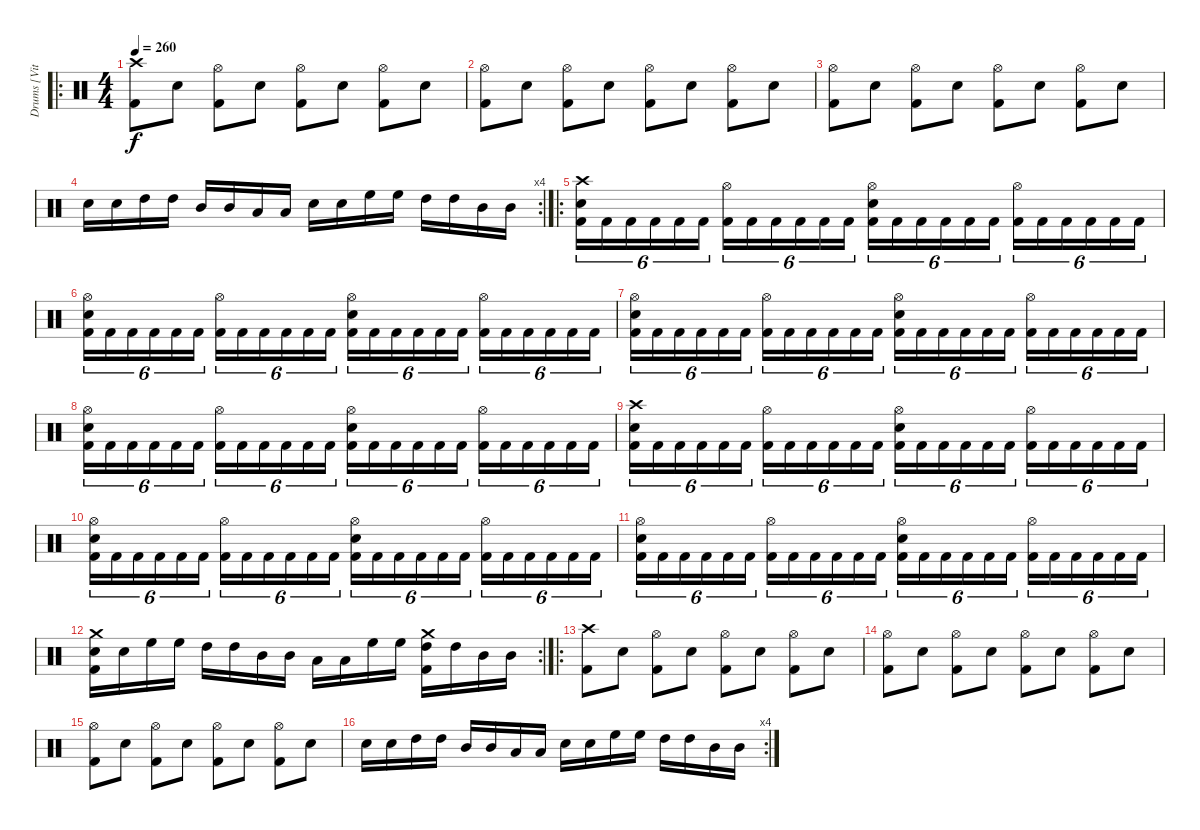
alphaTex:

\track ("Drums [Vitek]" "Drums [Vit") {instrument percussion}
\staff {score}
\articulation defaults
\ro
\ts (4 4)
\tempo 260
\clef neutral
\ks c
("Crash high (hit)" "Kick (hit) 2").8{dy f} "Electric Snare (hit)".8 ("Hi-Hat (open)" "Kick (hit) 2").8 "Electric Snare (hit)".8 ("Hi-Hat (open)" "Kick (hit) 2").8 "Electric Snare (hit)".8 ("Hi-Hat (open)" "Kick (hit) 2").8 "Electric Snare (hit)".8 |
("Hi-Hat (open)" "Kick (hit) 2").8 "Electric Snare (hit)".8 ("Hi-Hat (open)" "Kick (hit) 2").8 "Electric Snare (hit)".8 ("Hi-Hat (open)" "Kick (hit) 2").8 "Electric Snare (hit)".8 ("Hi-Hat (open)" "Kick (hit) 2").8 "Electric Snare (hit)".8 |
("Hi-Hat (open)" "Kick (hit) 2").8 "Electric Snare (hit)".8 ("Hi-Hat (open)" "Kick (hit) 2").8 "Electric Snare (hit)".8 ("Hi-Hat (open)" "Kick (hit) 2").8 "Electric Snare (hit)".8 ("Hi-Hat (open)" "Kick (hit) 2").8 "Electric Snare (hit)".8 |
\rc 4 "Electric Snare (hit)".16 "Electric Snare (hit)".16 "High Tom (hit)".16 "High Tom (hit)".16 "Mid Tom (hit)".16 "Mid Tom (hit)".16 "Low Tom (hit)".16 "Low Tom (hit)".16 "Electric Snare (hit)".16 "Electric Snare (hit)".16 "High Floor Tom (hit)".16 "High Floor Tom (hit)".16 "High Tom (hit)".16 "High Tom (hit)".16 "Mid Tom (hit)".16 "Mid Tom (hit)".16
|
\ro
("Crash high (hit)" "Electric Snare (hit)" "Kick (hit) 2").16{tu (6 4)} "Kick (hit) 2".16{tu (6 4)} "Kick (hit) 2".16{tu (6 4)} "Kick (hit) 2".16{tu (6 4)} "Kick (hit) 2".16{tu (6 4)} "Kick (hit) 2".16{tu (6 4)} ("Hi-Hat (open)" "Kick (hit) 2").16{tu (6 4)} "Kick (hit) 2".16{tu (6 4)} "Kick (hit) 2".16{tu (6 4)} "Kick (hit) 2".16{tu (6 4)} "Kick (hit) 2".16{tu (6 4)} "Kick (hit) 2".16{tu (6 4)} ("Hi-Hat (open)" "Electric Snare (hit)" "Kick (hit) 2").16{tu (6 4)} "Kick (hit) 2".16{tu (6 4)} "Kick (hit) 2".16{tu (6 4)} "Kick (hit) 2".16{tu (6 4)} "Kick (hit) 2".16{tu (6 4)} "Kick (hit) 2".16{tu (6 4)} ("Hi-Hat (open)" "Kick (hit) 2").16{tu (6 4)} "Kick (hit) 2".16{tu (6 4)} "Kick (hit) 2".16{tu (6 4)} "Kick (hit) 2".16{tu (6 4)} "Kick (hit) 2".16{tu (6 4)} "Kick (hit) 2".16{tu (6 4)} |
("Hi-Hat (open)" "Electric Snare (hit)" "Kick (hit) 2").16{tu (6 4)} "Kick (hit) 2".16{tu (6 4)} "Kick (hit) 2".16{tu (6 4)} "Kick (hit) 2".16{tu (6 4)} "Kick (hit) 2".16{tu (6 4)} "Kick (hit) 2".16{tu (6 4)} ("Hi-Hat (open)" "Kick (hit) 2").16{tu (6 4)} "Kick (hit) 2".16{tu (6 4)} "Kick (hit) 2".16{tu (6 4)} "Kick (hit) 2".16{tu (6 4)} "Kick (hit) 2".16{tu (6 4)} "Kick (hit) 2".16{tu (6 4)} ("Hi-Hat (open)" "Electric Snare (hit)" "Kick (hit) 2").16{tu (6 4)} "Kick (hit) 2".16{tu (6 4)} "Kick (hit) 2".16{tu (6 4)} "Kick (hit) 2".16{tu (6 4)} "Kick (hit) 2".16{tu (6 4)} "Kick (hit) 2".16{tu (6 4)} ("Hi-Hat (open)" "Kick (hit) 2").16{tu (6 4)} "Kick (hit) 2".16{tu (6 4)} "Kick (hit) 2".16{tu (6 4)} "Kick (hit) 2".16{tu (6 4)} "Kick (hit) 2".16{tu (6 4)} "Kick (hit) 2".16{tu (6 4)} |
("Hi-Hat (open)" "Electric Snare (hit)" "Kick (hit) 2").16{tu (6 4)} "Kick (hit) 2".16{tu (6 4)} "Kick (hit) 2".16{tu (6 4)} "Kick (hit) 2".16{tu (6 4)} "Kick (hit) 2".16{tu (6 4)} "Kick (hit) 2".16{tu (6 4)} ("Hi-Hat (open)" "Kick (hit) 2").16{tu (6 4)} "Kick (hit) 2".16{tu (6 4)} "Kick (hit) 2".16{tu (6 4)} "Kick (hit) 2".16{tu (6 4)} "Kick (hit) 2".16{tu (6 4)} "Kick (hit) 2".16{tu (6 4)} ("Hi-Hat (open)" "Electric Snare (hit)" "Kick (hit) 2").16{tu (6 4)} "Kick (hit) 2".16{tu (6 4)} "Kick (hit) 2".16{tu (6 4)} "Kick (hit) 2".16{tu (6 4)} "Kick (hit) 2".16{tu (6 4)} "Kick (hit) 2".16{tu (6 4)} ("Hi-Hat (open)" "Kick (hit) 2").16{tu (6 4)} "Kick (hit) 2".16{tu (6 4)} "Kick (hit) 2".16{tu (6 4)} "Kick (hit) 2".16{tu (6 4)} "Kick (hit) 2".16{tu (6 4)} "Kick (hit) 2".16{tu (6 4)} |
("Hi-Hat (open)" "Electric Snare (hit)" "Kick (hit) 2").16{tu (6 4)} "Kick (hit) 2".16{tu (6 4)} "Kick (hit) 2".16{tu (6 4)} "Kick (hit) 2".16{tu (6 4)} "Kick (hit) 2".16{tu (6 4)} "Kick (hit) 2".16{tu (6 4)} ("Hi-Hat (open)" "Kick (hit) 2").16{tu (6 4)} "Kick (hit) 2".16{tu (6 4)} "Kick (hit) 2".16{tu (6 4)} "Kick (hit) 2".16{tu (6 4)} "Kick (hit) 2".16{tu (6 4)} "Kick (hit) 2".16{tu (6 4)} ("Hi-Hat (open)" "Electric Snare (hit)" "Kick (hit) 2").16{tu (6 4)} "Kick (hit) 2".16{tu (6 4)} "Kick (hit) 2".16{tu (6 4)} "Kick (hit) 2".16{tu (6 4)} "Kick (hit) 2".16{tu (6 4)} "Kick (hit) 2".16{tu (6 4)} ("Hi-Hat (open)" "Kick (hit) 2").16{tu (6 4)} "Kick (hit) 2".16{tu (6 4)} "Kick (hit) 2".16{tu (6 4)} "Kick (hit) 2".16{tu (6 4)} "Kick (hit) 2".16{tu (6 4)} "Kick (hit) 2".16{tu (6 4)} |
("Crash high (hit)" "Electric Snare (hit)" "Kick (hit) 2").16{tu (6 4)} "Kick (hit) 2".16{tu (6 4)} "Kick (hit) 2".16{tu (6 4)} "Kick (hit) 2".16{tu (6 4)} "Kick (hit) 2".16{tu (6 4)} "Kick (hit) 2".16{tu (6 4)} ("Hi-Hat (open)" "Kick (hit) 2").16{tu (6 4)} "Kick (hit) 2".16{tu (6 4)} "Kick (hit) 2".16{tu (6 4)} "Kick (hit) 2".16{tu (6 4)} "Kick (hit) 2".16{tu (6 4)} "Kick (hit) 2".16{tu (6 4)} ("Hi-Hat (open)" "Electric Snare (hit)" "Kick (hit) 2").16{tu (6 4)} "Kick (hit) 2".16{tu (6 4)} "Kick (hit) 2".16{tu (6 4)} "Kick (hit) 2".16{tu (6 4)} "Kick (hit) 2".16{tu (6 4)} "Kick (hit) 2".16{tu (6 4)} ("Hi-Hat (open)" "Kick (hit) 2").16{tu (6 4)} "Kick (hit) 2".16{tu (6 4)} "Kick (hit) 2".16{tu (6 4)} "Kick (hit) 2".16{tu (6 4)} "Kick (hit) 2".16{tu (6 4)} "Kick (hit) 2".16{tu (6 4)} |
("Hi-Hat (open)" "Electric Snare (hit)" "Kick (hit) 2").16{tu (6 4)} "Kick (hit) 2".16{tu (6 4)} "Kick (hit) 2".16{tu (6 4)} "Kick (hit) 2".16{tu (6 4)} "Kick (hit) 2".16{tu (6 4)} "Kick (hit) 2".16{tu (6 4)} ("Hi-Hat (open)" "Kick (hit) 2").16{tu (6 4)} "Kick (hit) 2".16{tu (6 4)} "Kick (hit) 2".16{tu (6 4)} "Kick (hit) 2".16{tu (6 4)} "Kick (hit) 2".16{tu (6 4)} "Kick (hit) 2".16{tu (6 4)} ("Hi-Hat (open)" "Electric Snare (hit)" "Kick (hit) 2").16{tu (6 4)} "Kick (hit) 2".16{tu (6 4)} "Kick (hit) 2".16{tu (6 4)} "Kick (hit) 2".16{tu (6 4)} "Kick (hit) 2".16{tu (6 4)} "Kick (hit) 2".16{tu (6 4)} ("Hi-Hat (open)" "Kick (hit) 2").16{tu (6 4)} "Kick (hit) 2".16{tu (6 4)} "Kick (hit) 2".16{tu (6 4)} "Kick (hit) 2".16{tu (6 4)} "Kick (hit) 2".16{tu (6 4)} "Kick (hit) 2".16{tu (6 4)} |
("Hi-Hat (open)" "Electric Snare (hit)" "Kick (hit) 2").16{tu (6 4)} "Kick (hit) 2".16{tu (6 4)} "Kick (hit) 2".16{tu (6 4)} "Kick (hit) 2".16{tu (6 4)} "Kick (hit) 2".16{tu (6 4)} "Kick (hit) 2".16{tu (6 4)} ("Hi-Hat (open)" "Kick (hit) 2").16{tu (6 4)} "Kick (hit) 2".16{tu (6 4)} "Kick (hit) 2".16{tu (6 4)} "Kick (hit) 2".16{tu (6 4)} "Kick (hit) 2".16{tu (6 4)} "Kick (hit) 2".16{tu (6 4)} ("Hi-Hat (open)" "Electric Snare (hit)" "Kick (hit) 2").16{tu (6 4)} "Kick (hit) 2".16{tu (6 4)} "Kick (hit) 2".16{tu (6 4)} "Kick (hit) 2".16{tu (6 4)} "Kick (hit) 2".16{tu (6 4)} "Kick (hit) 2".16{tu (6 4)} ("Hi-Hat (open)" "Kick (hit) 2").16{tu (6 4)} "Kick (hit) 2".16{tu (6 4)} "Kick (hit) 2".16{tu (6 4)} "Kick (hit) 2".16{tu (6 4)} "Kick (hit) 2".16{tu (6 4)} "Kick (hit) 2".16{tu (6 4)} |
\rc 2
("Crash medium (hit)" "Electric Snare (hit)" "Kick (hit) 2").16 "Electric Snare (hit)".16 "High Floor Tom (hit)".16 "High Floor Tom (hit)".16 "High Tom (hit)".16 "High Tom (hit)".16 "Mid Tom (hit)".16 "Mid Tom (hit)".16 "Low Tom (hit)".16 "Low Tom (hit)".16 "High Floor Tom (hit)".16 "High Floor Tom (hit)".16 ("Crash medium (hit)" "High Tom (hit)" "Kick (hit) 2").16 "High Tom (hit)".16 "Mid Tom (hit)".16 "Mid Tom (hit)".16 |
\ro
("Crash high (hit)" "Kick (hit) 2").8 "Electric Snare (hit)".8 ("Hi-Hat (open)" "Kick (hit) 2").8 "Electric Snare (hit)".8 ("Hi-Hat (open)" "Kick (hit) 2").8 "Electric Snare (hit)".8 ("Hi-Hat (open)" "Kick (hit) 2").8 "Electric Snare (hit)".8 |
("Hi-Hat (open)" "Kick (hit) 2").8 "Electric Snare (hit)".8 ("Hi-Hat (open)" "Kick (hit) 2").8 "Electric Snare (hit)".8 ("Hi-Hat (open)" "Kick (hit) 2").8 "Electric Snare (hit)".8 ("Hi-Hat (open)" "Kick (hit) 2").8 "Electric Snare (hit)".8 |
("Hi-Hat (open)" "Kick (hit) 2").8 "Electric Snare (hit)".8 ("Hi-Hat (open)" "Kick (hit) 2").8 "Electric Snare (hit)".8 ("Hi-Hat (open)" "Kick (hit) 2").8 "Electric Snare (hit)".8 ("Hi-Hat (open)" "Kick (hit) 2").8 "Electric Snare (hit)".8 |
\rc 4 "Electric Snare (hit)".16 "Electric Snare (hit)".16 "High Tom (hit)".16 "High Tom (hit)".16 "Mid Tom (hit)".16 "Mid Tom (hit)".16 "Low Tom (hit)".16 "Low Tom (hit)".16 "Electric Snare (hit)".16 "Electric Snare (hit)".16 "High Floor Tom (hit)".16 "High Floor Tom (hit)".16 "High Tom (hit)".16 "High Tom (hit)".16 "Mid Tom (hit)".16 "Mid Tom (hit)".16
